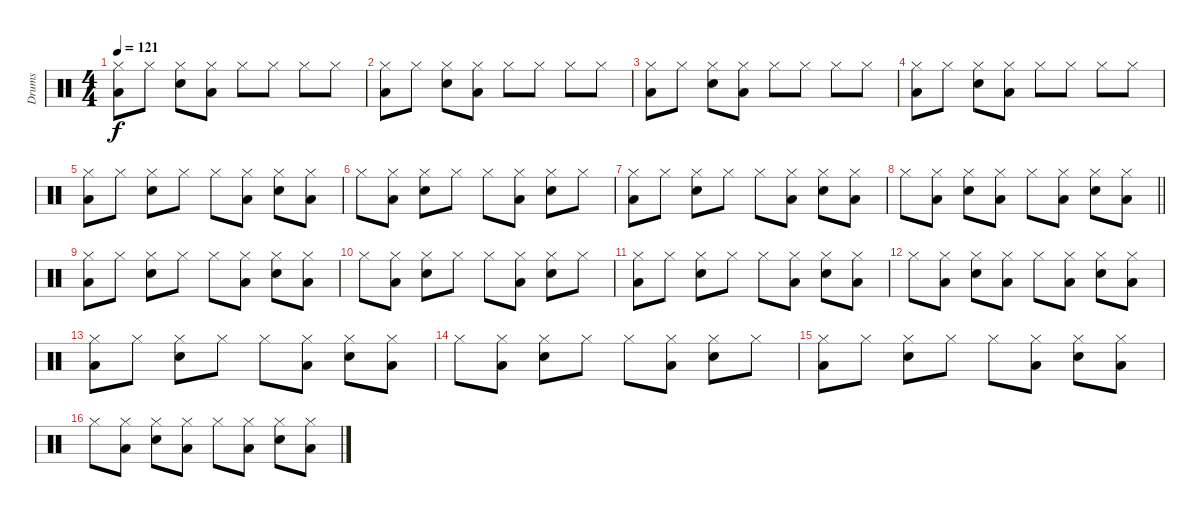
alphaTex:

\track ("Drums" "Drums") {instrument percussion}
\staff {score}
\articulation defaults
\ts (4 4)
\tempo 121
\clef neutral
\ks c
("Hi-Hat (closed)" "Low Floor Tom (hit)").8{dy f} "Hi-Hat (closed)".8 ("Hi-Hat (closed)" "Electric Snare (hit)").8 ("Hi-Hat (closed)" "Low Floor Tom (hit)").8 "Hi-Hat (closed)".8 "Hi-Hat (closed)".8 "Hi-Hat (closed)".8 "Hi-Hat (closed)".8 |
("Hi-Hat (closed)" "Low Floor Tom (hit)").8 "Hi-Hat (closed)".8 ("Hi-Hat (closed)" "Electric Snare (hit)").8 ("Hi-Hat (closed)" "Low Floor Tom (hit)").8 "Hi-Hat (closed)".8 "Hi-Hat (closed)".8 "Hi-Hat (closed)".8 "Hi-Hat (closed)".8 |
("Hi-Hat (closed)" "Low Floor Tom (hit)").8 "Hi-Hat (closed)".8 ("Hi-Hat (closed)" "Electric Snare (hit)").8 ("Hi-Hat (closed)" "Low Floor Tom (hit)").8 "Hi-Hat (closed)".8 "Hi-Hat (closed)".8 "Hi-Hat (closed)".8 "Hi-Hat (closed)".8 |
("Hi-Hat (closed)" "Low Floor Tom (hit)").8 "Hi-Hat (closed)".8 ("Hi-Hat (closed)" "Electric Snare (hit)").8 ("Hi-Hat (closed)" "Low Floor Tom (hit)").8 "Hi-Hat (closed)".8 "Hi-Hat (closed)".8 "Hi-Hat (closed)".8 "Hi-Hat (closed)".8 |
("Hi-Hat (closed)" "Low Floor Tom (hit)").8 "Hi-Hat (closed)".8 ("Hi-Hat (closed)" "Electric Snare (hit)").8 "Hi-Hat (closed)".8 "Hi-Hat (closed)".8 ("Hi-Hat (closed)" "Low Floor Tom (hit)").8 ("Hi-Hat (closed)" "Electric Snare (hit)").8 ("Hi-Hat (closed)" "Low Floor Tom (hit)").8 |
"Hi-Hat (closed)".8 ("Hi-Hat (closed)" "Low Floor Tom (hit)").8 ("Hi-Hat (closed)" "Electric Snare (hit)").8 "Hi-Hat (closed)".8 "Hi-Hat (closed)".8 ("Hi-Hat (closed)" "Low Floor Tom (hit)").8 ("Hi-Hat (closed)" "Electric Snare (hit)").8 "Hi-Hat (closed)".8 |
("Hi-Hat (closed)" "Low Floor Tom (hit)").8 "Hi-Hat (closed)".8 ("Hi-Hat (closed)" "Electric Snare (hit)").8 "Hi-Hat (closed)".8 "Hi-Hat (closed)".8 ("Hi-Hat (closed)" "Low Floor Tom (hit)").8 ("Hi-Hat (closed)" "Electric Snare (hit)").8 ("Hi-Hat (closed)" "Low Floor Tom (hit)").8 |
\barLineRight lightlight "Hi-Hat (closed)".8
("Hi-Hat (closed)" "Low Floor Tom (hit)").8 ("Hi-Hat (closed)" "Electric Snare (hit)").8 ("Hi-Hat (closed)" "Low Floor Tom (hit)").8 "Hi-Hat (closed)".8 ("Hi-Hat (closed)" "Low Floor Tom (hit)").8 ("Hi-Hat (closed)" "Electric Snare (hit)").8 ("Hi-Hat (closed)" "Low Floor Tom (hit)").8 |
("Hi-Hat (closed)" "Low Floor Tom (hit)").8 "Hi-Hat (closed)".8 ("Hi-Hat (closed)" "Electric Snare (hit)").8 "Hi-Hat (closed)".8 "Hi-Hat (closed)".8 ("Hi-Hat (closed)" "Low Floor Tom (hit)").8 ("Hi-Hat (closed)" "Electric Snare (hit)").8 ("Hi-Hat (closed)" "Low Floor Tom (hit)").8 |
"Hi-Hat (closed)".8 ("Hi-Hat (closed)" "Low Floor Tom (hit)").8 ("Hi-Hat (closed)" "Electric Snare (hit)").8 "Hi-Hat (closed)".8 "Hi-Hat (closed)".8 ("Hi-Hat (closed)" "Low Floor Tom (hit)").8 ("Hi-Hat (closed)" "Electric Snare (hit)").8 "Hi-Hat (closed)".8 |
("Hi-Hat (closed)" "Low Floor Tom (hit)").8 "Hi-Hat (closed)".8 ("Hi-Hat (closed)" "Electric Snare (hit)").8 "Hi-Hat (closed)".8 "Hi-Hat (closed)".8 ("Hi-Hat (closed)" "Low Floor Tom (hit)").8 ("Hi-Hat (closed)" "Electric Snare (hit)").8 ("Hi-Hat (closed)" "Low Floor Tom (hit)").8 |
"Hi-Hat (closed)".8 ("Hi-Hat (closed)" "Low Floor Tom (hit)").8 ("Hi-Hat (closed)" "Electric Snare (hit)").8 ("Hi-Hat (closed)" "Low Floor Tom (hit)").8 "Hi-Hat (closed)".8 ("Hi-Hat (closed)" "Low Floor Tom (hit)").8 ("Hi-Hat (closed)" "Electric Snare (hit)").8 ("Hi-Hat (closed)" "Low Floor Tom (hit)").8 |
("Hi-Hat (closed)" "Low Floor Tom (hit)").8 "Hi-Hat (closed)".8 ("Hi-Hat (closed)" "Electric Snare (hit)").8 "Hi-Hat (closed)".8 "Hi-Hat (closed)".8 ("Hi-Hat (closed)" "Low Floor Tom (hit)").8 ("Hi-Hat (closed)" "Electric Snare (hit)").8 ("Hi-Hat (closed)" "Low Floor Tom (hit)").8 |
"Hi-Hat (closed)".8 ("Hi-Hat (closed)" "Low Floor Tom (hit)").8 ("Hi-Hat (closed)" "Electric Snare (hit)").8 "Hi-Hat (closed)".8 "Hi-Hat (closed)".8 ("Hi-Hat (closed)" "Low Floor Tom (hit)").8 ("Hi-Hat (closed)" "Electric Snare (hit)").8 "Hi-Hat (closed)".8 |
("Hi-Hat (closed)" "Low Floor Tom (hit)").8 "Hi-Hat (closed)".8 ("Hi-Hat (closed)" "Electric Snare (hit)").8 "Hi-Hat (closed)".8 "Hi-Hat (closed)".8 ("Hi-Hat (closed)" "Low Floor Tom (hit)").8 ("Hi-Hat (closed)" "Electric Snare (hit)").8 ("Hi-Hat (closed)" "Low Floor Tom (hit)").8 |
"Hi-Hat (closed)".8 ("Hi-Hat (closed)" "Low Floor Tom (hit)").8 ("Hi-Hat (closed)" "Electric Snare (hit)").8 ("Hi-Hat (closed)" "Low Floor Tom (hit)").8 "Hi-Hat (closed)".8 ("Hi-Hat (closed)" "Low Floor Tom (hit)").8 ("Hi-Hat (closed)" "Electric Snare (hit)").8 ("Hi-Hat (closed)" "Low Floor Tom (hit)").8
